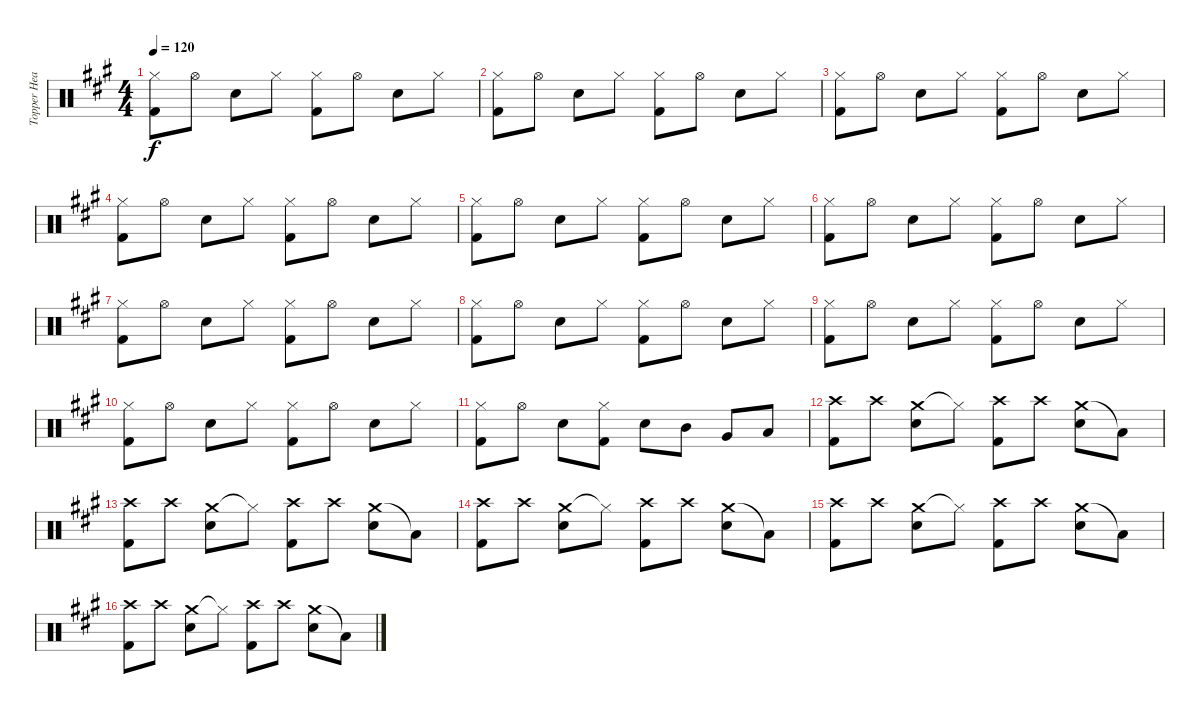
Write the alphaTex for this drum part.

\track ("Topper Headon - Drums" "Topper Hea") {instrument percussion}
\staff {score}
\articulation defaults
\ts (4 4)
\tempo 120
\clef neutral
\ks a
("Hi-Hat (closed)" "Kick (hit) 2").8{dy f} "Hi-Hat (open)".8 "Electric Snare (hit)".8 "Hi-Hat (closed)".8 ("Hi-Hat (closed)" "Kick (hit) 2").8 "Hi-Hat (open)".8 "Electric Snare (hit)".8 "Hi-Hat (closed)".8 |
("Hi-Hat (closed)" "Kick (hit) 2").8 "Hi-Hat (open)".8 "Electric Snare (hit)".8 "Hi-Hat (closed)".8 ("Hi-Hat (closed)" "Kick (hit) 2").8 "Hi-Hat (open)".8 "Electric Snare (hit)".8 "Hi-Hat (closed)".8 |
("Hi-Hat (closed)" "Kick (hit) 2").8 "Hi-Hat (open)".8 "Electric Snare (hit)".8 "Hi-Hat (closed)".8 ("Hi-Hat (closed)" "Kick (hit) 2").8 "Hi-Hat (open)".8 "Electric Snare (hit)".8 "Hi-Hat (closed)".8 |
("Hi-Hat (closed)" "Kick (hit) 2").8 "Hi-Hat (open)".8 "Electric Snare (hit)".8 "Hi-Hat (closed)".8 ("Hi-Hat (closed)" "Kick (hit) 2").8 "Hi-Hat (open)".8 "Electric Snare (hit)".8 "Hi-Hat (closed)".8 |
("Hi-Hat (closed)" "Kick (hit) 2").8 "Hi-Hat (open)".8 "Electric Snare (hit)".8 "Hi-Hat (closed)".8 ("Hi-Hat (closed)" "Kick (hit) 2").8 "Hi-Hat (open)".8 "Electric Snare (hit)".8 "Hi-Hat (closed)".8 |
("Hi-Hat (closed)" "Kick (hit) 2").8 "Hi-Hat (open)".8 "Electric Snare (hit)".8 "Hi-Hat (closed)".8 ("Hi-Hat (closed)" "Kick (hit) 2").8 "Hi-Hat (open)".8 "Electric Snare (hit)".8 "Hi-Hat (closed)".8 |
("Hi-Hat (closed)" "Kick (hit) 2").8 "Hi-Hat (open)".8 "Electric Snare (hit)".8 "Hi-Hat (closed)".8 ("Hi-Hat (closed)" "Kick (hit) 2").8 "Hi-Hat (open)".8 "Electric Snare (hit)".8 "Hi-Hat (closed)".8 |
("Hi-Hat (closed)" "Kick (hit) 2").8 "Hi-Hat (open)".8 "Electric Snare (hit)".8 "Hi-Hat (closed)".8 ("Hi-Hat (closed)" "Kick (hit) 2").8 "Hi-Hat (open)".8 "Electric Snare (hit)".8 "Hi-Hat (closed)".8 |
("Hi-Hat (closed)" "Kick (hit) 2").8 "Hi-Hat (open)".8 "Electric Snare (hit)".8 "Hi-Hat (closed)".8 ("Hi-Hat (closed)" "Kick (hit) 2").8 "Hi-Hat (open)".8 "Electric Snare (hit)".8 "Hi-Hat (closed)".8 |
("Hi-Hat (closed)" "Kick (hit) 2").8 "Hi-Hat (open)".8 "Electric Snare (hit)".8 "Hi-Hat (closed)".8 ("Hi-Hat (closed)" "Kick (hit) 2").8 "Hi-Hat (open)".8 "Electric Snare (hit)".8 "Hi-Hat (closed)".8 |
("Hi-Hat (closed)" "Kick (hit) 2").8 "Hi-Hat (open)".8 "Electric Snare (hit)".8 ("Hi-Hat (closed)" "Kick (hit) 2").8 "Electric Snare (hit)".8 "Mid Tom (hit)".8 "Very Low Tom (hit)".8 "Low Floor Tom (hit)".8 |
("Crash high (hit)" "Kick (hit) 2").8 "Crash high (hit)".8 ("Crash medium (hit)" "Electric Snare (hit)").8 "Hi-Hat (closed)"{t}.8 ("Crash high (hit)" "Kick (hit) 2").8 "Crash high (hit)".8 ("Crash medium (hit)" "Electric Snare (hit)").8 "Low Floor Tom (hit)"{t}.8 |
("Crash high (hit)" "Kick (hit) 2").8 "Crash high (hit)".8 ("Crash medium (hit)" "Electric Snare (hit)").8 "Hi-Hat (closed)"{t}.8 ("Crash high (hit)" "Kick (hit) 2").8 "Crash high (hit)".8 ("Crash medium (hit)" "Electric Snare (hit)").8 "Low Floor Tom (hit)"{t}.8 |
("Crash high (hit)" "Kick (hit) 2").8 "Crash high (hit)".8 ("Crash medium (hit)" "Electric Snare (hit)").8 "Hi-Hat (closed)"{t}.8 ("Crash high (hit)" "Kick (hit) 2").8 "Crash high (hit)".8 ("Crash medium (hit)" "Electric Snare (hit)").8 "Low Floor Tom (hit)"{t}.8 |
("Crash high (hit)" "Kick (hit) 2").8 "Crash high (hit)".8 ("Crash medium (hit)" "Electric Snare (hit)").8 "Hi-Hat (closed)"{t}.8 ("Crash high (hit)" "Kick (hit) 2").8 "Crash high (hit)".8 ("Crash medium (hit)" "Electric Snare (hit)").8 "Low Floor Tom (hit)"{t}.8 |
("Crash high (hit)" "Kick (hit) 2").8 "Crash high (hit)".8 ("Crash medium (hit)" "Electric Snare (hit)").8 "Hi-Hat (closed)"{t}.8 ("Crash high (hit)" "Kick (hit) 2").8 "Crash high (hit)".8 ("Crash medium (hit)" "Electric Snare (hit)").8 "Low Floor Tom (hit)"{t}.8
